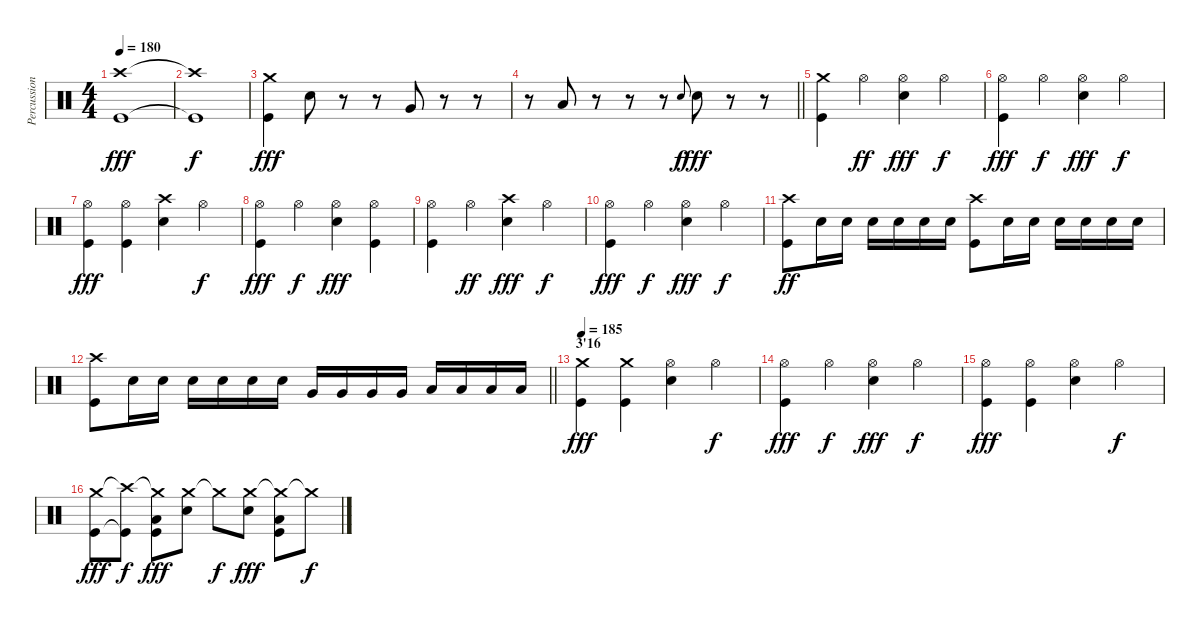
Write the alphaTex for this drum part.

\track ("Percussions" "Percussion") {instrument percussion}
\staff {score}
\articulation defaults
\ts (4 4)
\tempo 180
\clef neutral
\ks c
("Crash high (hit)" "Kick (hit)").1{dy fff} |
("Crash high (hit)"{t} "Kick (hit)"{t}).1{dy f} |
("Crash medium (hit)" "Kick (hit)").4{dy fff} "Electric Snare (hit)".8 r.8 r.8 "Very Low Tom (hit)".8 r.8 r.8 |
\barLineRight lightlight
r.8 "Low Floor Tom (hit)".8 r.8 r.8 r.8 "Electric Snare (hit)".8{gr onbeat dy f} "Electric Snare (hit)".8{dy fff} r.8 r.8 |
("Crash medium (hit)" "Kick (hit)").4 "Hi-Hat (open)".4{dy ff} ("Hi-Hat (open)" "Electric Snare (hit)").4{dy fff} "Hi-Hat (open)".4{dy f} |
("Hi-Hat (open)" "Kick (hit)").4{dy fff} "Hi-Hat (open)".4{dy f} ("Hi-Hat (open)" "Electric Snare (hit)").4{dy fff} "Hi-Hat (open)".4{dy f} |
("Hi-Hat (open)" "Kick (hit)").4{dy fff} ("Hi-Hat (open)" "Kick (hit)").4 ("Crash high (hit)" "Electric Snare (hit)").4 "Hi-Hat (open)".4{dy f} |
("Hi-Hat (open)" "Kick (hit)").4{dy fff} "Hi-Hat (open)".4{dy f} ("Hi-Hat (open)" "Electric Snare (hit)").4{dy fff} ("Hi-Hat (open)" "Kick (hit)").4 |
("Hi-Hat (open)" "Kick (hit)").4 "Hi-Hat (open)".4{dy ff} ("Crash high (hit)" "Electric Snare (hit)").4{dy fff} "Hi-Hat (open)".4{dy f} |
("Hi-Hat (open)" "Kick (hit)").4{dy fff} "Hi-Hat (open)".4{dy f} ("Hi-Hat (open)" "Electric Snare (hit)").4{dy fff} "Hi-Hat (open)".4{dy f} |
("Crash high (hit)" "Kick (hit)").8{dy ff} "Electric Snare (hit)".16 "Electric Snare (hit)".16 "Electric Snare (hit)".16 "Electric Snare (hit)".16 "Electric Snare (hit)".16 "Electric Snare (hit)".16 ("Crash high (hit)" "Kick (hit)").8 "Electric Snare (hit)".16 "Electric Snare (hit)".16 "Electric Snare (hit)".16 "Electric Snare (hit)".16 "Electric Snare (hit)".16 "Electric Snare (hit)".16 |
\barLineRight lightlight
("Crash high (hit)" "Kick (hit)").8 "Electric Snare (hit)".16 "Electric Snare (hit)".16 "Electric Snare (hit)".16 "Electric Snare (hit)".16 "Electric Snare (hit)".16 "Electric Snare (hit)".16 "Very Low Tom (hit)".16 "Very Low Tom (hit)".16 "Very Low Tom (hit)".16 "Very Low Tom (hit)".16 "Low Floor Tom (hit)".16 "Low Floor Tom (hit)".16 "Low Floor Tom (hit)".16 "Low Floor Tom (hit)".16 |
\section ("" "3'16")
\tempo 185
("Crash medium (hit)" "Kick (hit)").4{dy fff} ("Crash medium (hit)" "Kick (hit)").4 ("Hi-Hat (open)" "Electric Snare (hit)").4 "Hi-Hat (open)".4{dy f} |
("Hi-Hat (open)" "Kick (hit)").4{dy fff} "Hi-Hat (open)".4{dy f} ("Hi-Hat (open)" "Electric Snare (hit)").4{dy fff} "Hi-Hat (open)".4{dy f} |
("Hi-Hat (open)" "Kick (hit)").4{dy fff} ("Hi-Hat (open)" "Kick (hit)").4 ("Hi-Hat (open)" "Electric Snare (hit)").4 "Hi-Hat (open)".4{dy f} |
("Crash medium (hit)" "Kick (hit)").8{dy fff} ("Crash high (hit)"{t} "Kick (hit)"{t}).8{dy f} ("Crash medium (hit)"{t} "Low Floor Tom (hit)" "Kick (hit)").8{dy fff} ("Crash medium (hit)" "Electric Snare (hit)").8 "Crash medium (hit)"{t}.8{dy f} ("Crash medium (hit)" "Electric Snare (hit)").8{dy fff} ("Crash medium (hit)"{t} "Low Floor Tom (hit)" "Kick (hit)").8 "Crash medium (hit)"{t}.8{dy f}
